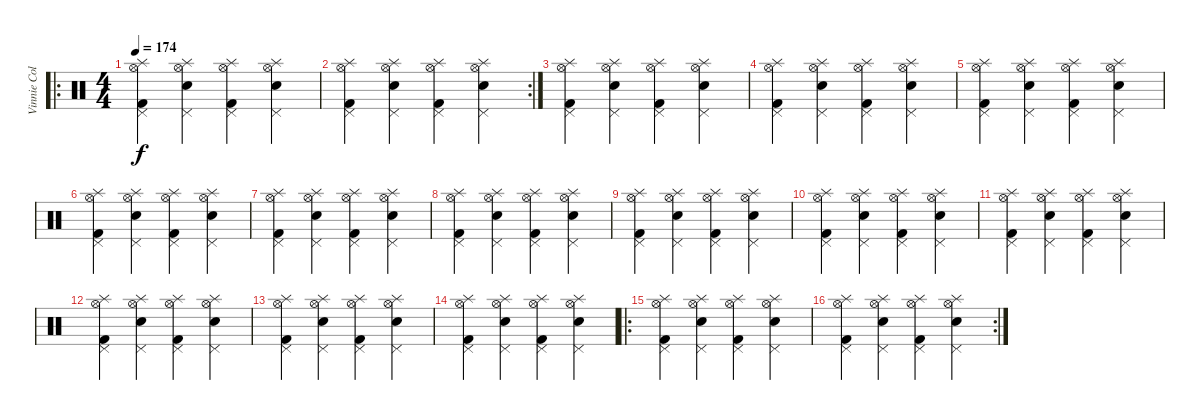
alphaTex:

\track ("Vinnie Colaiuta" "Vinnie Col") {instrument percussion}
\staff {score}
\articulation defaults
\ro
\ts (4 4)
\tempo 174
\clef neutral
\ks c
("Splash (hit)" "Kick (hit) 2" "Pedal Hi-Hat (hit)" "Hi-Hat (open)").4{dy f} ("Splash (hit)" "Snare (hit) 2" "Pedal Hi-Hat (hit)" "Hi-Hat (open)").4 ("Splash (hit)" "Kick (hit) 2" "Pedal Hi-Hat (hit)" "Hi-Hat (open)").4 ("Splash (hit)" "Snare (hit) 2" "Pedal Hi-Hat (hit)" "Hi-Hat (open)").4 |
\rc 2
("Splash (hit)" "Kick (hit) 2" "Pedal Hi-Hat (hit)" "Hi-Hat (open)").4 ("Splash (hit)" "Snare (hit) 2" "Pedal Hi-Hat (hit)" "Hi-Hat (open)").4 ("Splash (hit)" "Kick (hit) 2" "Pedal Hi-Hat (hit)" "Hi-Hat (open)").4 ("Splash (hit)" "Snare (hit) 2" "Pedal Hi-Hat (hit)" "Hi-Hat (open)").4 |
("Splash (hit)" "Kick (hit) 2" "Pedal Hi-Hat (hit)" "Hi-Hat (open)").4 ("Splash (hit)" "Snare (hit) 2" "Pedal Hi-Hat (hit)" "Hi-Hat (open)").4 ("Splash (hit)" "Kick (hit) 2" "Pedal Hi-Hat (hit)" "Hi-Hat (open)").4 ("Splash (hit)" "Snare (hit) 2" "Pedal Hi-Hat (hit)" "Hi-Hat (open)").4 |
("Splash (hit)" "Kick (hit) 2" "Pedal Hi-Hat (hit)" "Hi-Hat (open)").4 ("Splash (hit)" "Snare (hit) 2" "Pedal Hi-Hat (hit)" "Hi-Hat (open)").4 ("Splash (hit)" "Kick (hit) 2" "Pedal Hi-Hat (hit)" "Hi-Hat (open)").4 ("Splash (hit)" "Snare (hit) 2" "Pedal Hi-Hat (hit)" "Hi-Hat (open)").4 |
("Splash (hit)" "Kick (hit) 2" "Pedal Hi-Hat (hit)" "Hi-Hat (open)").4 ("Splash (hit)" "Snare (hit) 2" "Pedal Hi-Hat (hit)" "Hi-Hat (open)").4 ("Splash (hit)" "Kick (hit) 2" "Pedal Hi-Hat (hit)" "Hi-Hat (open)").4 ("Splash (hit)" "Snare (hit) 2" "Pedal Hi-Hat (hit)" "Hi-Hat (open)").4 |
("Splash (hit)" "Kick (hit) 2" "Pedal Hi-Hat (hit)" "Hi-Hat (open)").4 ("Splash (hit)" "Snare (hit) 2" "Pedal Hi-Hat (hit)" "Hi-Hat (open)").4 ("Splash (hit)" "Kick (hit) 2" "Pedal Hi-Hat (hit)" "Hi-Hat (open)").4 ("Splash (hit)" "Snare (hit) 2" "Pedal Hi-Hat (hit)" "Hi-Hat (open)").4 |
("Splash (hit)" "Kick (hit) 2" "Pedal Hi-Hat (hit)" "Hi-Hat (open)").4 ("Splash (hit)" "Snare (hit) 2" "Pedal Hi-Hat (hit)" "Hi-Hat (open)").4 ("Splash (hit)" "Kick (hit) 2" "Pedal Hi-Hat (hit)" "Hi-Hat (open)").4 ("Splash (hit)" "Snare (hit) 2" "Pedal Hi-Hat (hit)" "Hi-Hat (open)").4 |
("Splash (hit)" "Kick (hit) 2" "Pedal Hi-Hat (hit)" "Hi-Hat (open)").4 ("Splash (hit)" "Snare (hit) 2" "Pedal Hi-Hat (hit)" "Hi-Hat (open)").4 ("Splash (hit)" "Kick (hit) 2" "Pedal Hi-Hat (hit)" "Hi-Hat (open)").4 ("Splash (hit)" "Snare (hit) 2" "Pedal Hi-Hat (hit)" "Hi-Hat (open)").4 |
("Splash (hit)" "Kick (hit) 2" "Pedal Hi-Hat (hit)" "Hi-Hat (open)").4 ("Splash (hit)" "Snare (hit) 2" "Pedal Hi-Hat (hit)" "Hi-Hat (open)").4 ("Splash (hit)" "Kick (hit) 2" "Pedal Hi-Hat (hit)" "Hi-Hat (open)").4 ("Splash (hit)" "Snare (hit) 2" "Pedal Hi-Hat (hit)" "Hi-Hat (open)").4 |
("Splash (hit)" "Kick (hit) 2" "Pedal Hi-Hat (hit)" "Hi-Hat (open)").4 ("Splash (hit)" "Snare (hit) 2" "Pedal Hi-Hat (hit)" "Hi-Hat (open)").4 ("Splash (hit)" "Kick (hit) 2" "Pedal Hi-Hat (hit)" "Hi-Hat (open)").4 ("Splash (hit)" "Snare (hit) 2" "Pedal Hi-Hat (hit)" "Hi-Hat (open)").4 |
("Splash (hit)" "Kick (hit) 2" "Pedal Hi-Hat (hit)" "Hi-Hat (open)").4 ("Splash (hit)" "Snare (hit) 2" "Pedal Hi-Hat (hit)" "Hi-Hat (open)").4 ("Splash (hit)" "Kick (hit) 2" "Pedal Hi-Hat (hit)" "Hi-Hat (open)").4 ("Splash (hit)" "Snare (hit) 2" "Pedal Hi-Hat (hit)" "Hi-Hat (open)").4 |
("Splash (hit)" "Kick (hit) 2" "Pedal Hi-Hat (hit)" "Hi-Hat (open)").4 ("Splash (hit)" "Snare (hit) 2" "Pedal Hi-Hat (hit)" "Hi-Hat (open)").4 ("Splash (hit)" "Kick (hit) 2" "Pedal Hi-Hat (hit)" "Hi-Hat (open)").4 ("Splash (hit)" "Snare (hit) 2" "Pedal Hi-Hat (hit)" "Hi-Hat (open)").4 |
("Splash (hit)" "Kick (hit) 2" "Pedal Hi-Hat (hit)" "Hi-Hat (open)").4 ("Splash (hit)" "Snare (hit) 2" "Pedal Hi-Hat (hit)" "Hi-Hat (open)").4 ("Splash (hit)" "Kick (hit) 2" "Pedal Hi-Hat (hit)" "Hi-Hat (open)").4 ("Splash (hit)" "Snare (hit) 2" "Pedal Hi-Hat (hit)" "Hi-Hat (open)").4 |
("Splash (hit)" "Kick (hit) 2" "Pedal Hi-Hat (hit)" "Hi-Hat (open)").4 ("Splash (hit)" "Snare (hit) 2" "Pedal Hi-Hat (hit)" "Hi-Hat (open)").4 ("Splash (hit)" "Kick (hit) 2" "Pedal Hi-Hat (hit)" "Hi-Hat (open)").4 ("Splash (hit)" "Snare (hit) 2" "Pedal Hi-Hat (hit)" "Hi-Hat (open)").4 |
\ro
("Splash (hit)" "Kick (hit) 2" "Pedal Hi-Hat (hit)" "Hi-Hat (open)").4 ("Splash (hit)" "Snare (hit) 2" "Pedal Hi-Hat (hit)" "Hi-Hat (open)").4 ("Splash (hit)" "Kick (hit) 2" "Pedal Hi-Hat (hit)" "Hi-Hat (open)").4 ("Splash (hit)" "Snare (hit) 2" "Pedal Hi-Hat (hit)" "Hi-Hat (open)").4 |
\rc 2
("Splash (hit)" "Kick (hit) 2" "Pedal Hi-Hat (hit)" "Hi-Hat (open)").4 ("Splash (hit)" "Snare (hit) 2" "Pedal Hi-Hat (hit)" "Hi-Hat (open)").4 ("Splash (hit)" "Kick (hit) 2" "Pedal Hi-Hat (hit)" "Hi-Hat (open)").4 ("Splash (hit)" "Snare (hit) 2" "Pedal Hi-Hat (hit)" "Hi-Hat (open)").4
